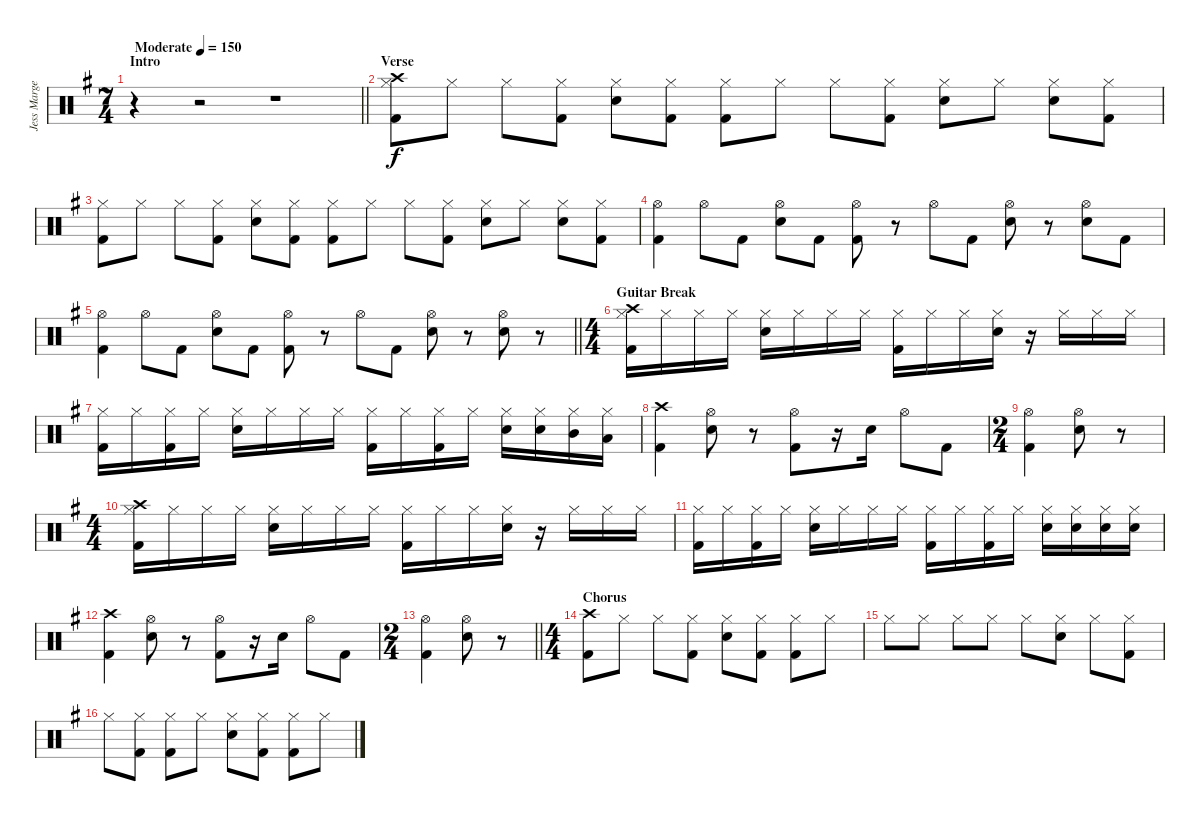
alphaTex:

\track ("Jess Margera" "Jess Marge") {instrument percussion}
\staff {score}
\articulation defaults
\ts (7 4)
\section ("" "Intro")
\tempo (150 "Moderate")
\clef neutral
\barLineRight lightlight
\ks g
r.4{dy f} r.2 r.1 |
\section ("" "Verse")
("Crash high (hit)" "Hi-Hat (closed)" "Kick (hit) 2").8 "Hi-Hat (closed)".8 "Hi-Hat (closed)".8 ("Hi-Hat (closed)" "Kick (hit) 2").8 ("Hi-Hat (closed)" "Electric Snare (hit)").8 ("Hi-Hat (closed)" "Kick (hit) 2").8 ("Hi-Hat (closed)" "Kick (hit) 2").8 "Hi-Hat (closed)".8 "Hi-Hat (closed)".8 ("Hi-Hat (closed)" "Kick (hit) 2").8 ("Hi-Hat (closed)" "Electric Snare (hit)").8 "Hi-Hat (closed)".8 ("Hi-Hat (closed)" "Electric Snare (hit)").8 ("Hi-Hat (closed)" "Kick (hit) 2").8 |
("Hi-Hat (closed)" "Kick (hit) 2").8 "Hi-Hat (closed)".8 "Hi-Hat (closed)".8 ("Hi-Hat (closed)" "Kick (hit) 2").8 ("Hi-Hat (closed)" "Electric Snare (hit)").8 ("Hi-Hat (closed)" "Kick (hit) 2").8 ("Hi-Hat (closed)" "Kick (hit) 2").8 "Hi-Hat (closed)".8 "Hi-Hat (closed)".8 ("Hi-Hat (closed)" "Kick (hit) 2").8 ("Hi-Hat (closed)" "Electric Snare (hit)").8 "Hi-Hat (closed)".8 ("Hi-Hat (closed)" "Electric Snare (hit)").8 ("Hi-Hat (closed)" "Kick (hit) 2").8 |
("Hi-Hat (open)" "Kick (hit) 2").4 "Hi-Hat (open)".8 "Kick (hit) 2".8 ("Hi-Hat (open)" "Electric Snare (hit)").8 "Kick (hit) 2".8 ("Hi-Hat (open)" "Kick (hit) 2").8 r.8 "Hi-Hat (open)".8 "Kick (hit) 2".8 ("Hi-Hat (open)" "Electric Snare (hit)").8 r.8 ("Hi-Hat (open)" "Electric Snare (hit)").8 "Kick (hit) 2".8 |
\barLineRight lightlight
("Hi-Hat (open)" "Kick (hit) 2").4 "Hi-Hat (open)".8 "Kick (hit) 2".8 ("Hi-Hat (open)" "Electric Snare (hit)").8 "Kick (hit) 2".8 ("Hi-Hat (open)" "Kick (hit) 2").8 r.8 "Hi-Hat (open)".8 "Kick (hit) 2".8 ("Hi-Hat (open)" "Electric Snare (hit)").8 r.8 ("Hi-Hat (open)" "Electric Snare (hit)").8 r.8 |
\ts (4 4)
\section ("" "Guitar Break")
("Crash high (hit)" "Hi-Hat (closed)" "Kick (hit) 2").16 "Hi-Hat (closed)".16 "Hi-Hat (closed)".16 "Hi-Hat (closed)".16 ("Hi-Hat (closed)" "Electric Snare (hit)").16 "Hi-Hat (closed)".16 "Hi-Hat (closed)".16 "Hi-Hat (closed)".16 ("Hi-Hat (closed)" "Kick (hit) 2").16 "Hi-Hat (closed)".16 "Hi-Hat (closed)".16 ("Hi-Hat (closed)" "Electric Snare (hit)").16 r.16 "Hi-Hat (closed)".16 "Hi-Hat (closed)".16 "Hi-Hat (closed)".16 |
("Hi-Hat (closed)" "Kick (hit) 2").16 "Hi-Hat (closed)".16 ("Hi-Hat (closed)" "Kick (hit) 2").16 "Hi-Hat (closed)".16 ("Hi-Hat (closed)" "Electric Snare (hit)").16 "Hi-Hat (closed)".16 "Hi-Hat (closed)".16 "Hi-Hat (closed)".16 ("Hi-Hat (closed)" "Kick (hit) 2").16 "Hi-Hat (closed)".16 ("Hi-Hat (closed)" "Kick (hit) 2").16 "Hi-Hat (closed)".16 ("Hi-Hat (closed)" "Electric Snare (hit)").16 ("Hi-Hat (closed)" "Electric Snare (hit)").16 ("Hi-Hat (closed)" "Mid Tom (hit)").16 ("Hi-Hat (closed)" "Low Tom (hit)").16 |
("Crash high (hit)" "Kick (hit) 2").4 ("Hi-Hat (open)" "Electric Snare (hit)").8 r.8 ("Hi-Hat (open)" "Kick (hit) 2").8 r.16 "Electric Snare (hit)".16 "Hi-Hat (open)".8 "Kick (hit) 2".8 |
\ts (2 4)
("Hi-Hat (open)" "Kick (hit) 2").4 ("Hi-Hat (open)" "Electric Snare (hit)").8 r.8 |
\ts (4 4)
("Crash high (hit)" "Hi-Hat (closed)" "Kick (hit) 2").16 "Hi-Hat (closed)".16 "Hi-Hat (closed)".16 "Hi-Hat (closed)".16 ("Hi-Hat (closed)" "Electric Snare (hit)").16 "Hi-Hat (closed)".16 "Hi-Hat (closed)".16 "Hi-Hat (closed)".16 ("Hi-Hat (closed)" "Kick (hit) 2").16 "Hi-Hat (closed)".16 "Hi-Hat (closed)".16 ("Hi-Hat (closed)" "Electric Snare (hit)").16 r.16 "Hi-Hat (closed)".16 "Hi-Hat (closed)".16 "Hi-Hat (closed)".16 |
("Hi-Hat (closed)" "Kick (hit) 2").16 "Hi-Hat (closed)".16 ("Hi-Hat (closed)" "Kick (hit) 2").16 "Hi-Hat (closed)".16 ("Hi-Hat (closed)" "Electric Snare (hit)").16 "Hi-Hat (closed)".16 "Hi-Hat (closed)".16 "Hi-Hat (closed)".16 ("Hi-Hat (closed)" "Kick (hit) 2").16 "Hi-Hat (closed)".16 ("Hi-Hat (closed)" "Kick (hit) 2").16 "Hi-Hat (closed)".16 ("Hi-Hat (closed)" "Electric Snare (hit)").16 ("Hi-Hat (closed)" "Electric Snare (hit)").16 ("Hi-Hat (closed)" "Electric Snare (hit)").16 ("Hi-Hat (closed)" "Electric Snare (hit)").16 |
("Crash high (hit)" "Kick (hit) 2").4 ("Hi-Hat (open)" "Electric Snare (hit)").8 r.8 ("Hi-Hat (open)" "Kick (hit) 2").8 r.16 "Electric Snare (hit)".16 "Hi-Hat (open)".8 "Kick (hit) 2".8 |
\ts (2 4)
\barLineRight lightlight
("Hi-Hat (open)" "Kick (hit) 2").4 ("Hi-Hat (open)" "Electric Snare (hit)").8 r.8 |
\ts (4 4)
\section ("" "Chorus")
("Crash high (hit)" "Kick (hit) 2").8 "Hi-Hat (closed)".8 "Hi-Hat (closed)".8 ("Hi-Hat (closed)" "Kick (hit) 2").8 ("Hi-Hat (closed)" "Electric Snare (hit)").8 ("Hi-Hat (closed)" "Kick (hit) 2").8 ("Hi-Hat (closed)" "Kick (hit) 2").8 "Hi-Hat (closed)".8 |
"Hi-Hat (closed)".8 "Hi-Hat (closed)".8 "Hi-Hat (closed)".8 "Hi-Hat (closed)".8 "Hi-Hat (closed)".8 ("Hi-Hat (closed)" "Electric Snare (hit)").8 "Hi-Hat (closed)".8 ("Hi-Hat (closed)" "Kick (hit) 2").8 |
"Hi-Hat (closed)".8 ("Hi-Hat (closed)" "Kick (hit) 2").8 ("Hi-Hat (closed)" "Kick (hit) 2").8 "Hi-Hat (closed)".8 ("Hi-Hat (closed)" "Electric Snare (hit)").8 ("Hi-Hat (closed)" "Kick (hit) 2").8 ("Hi-Hat (closed)" "Kick (hit) 2").8 "Hi-Hat (closed)".8
